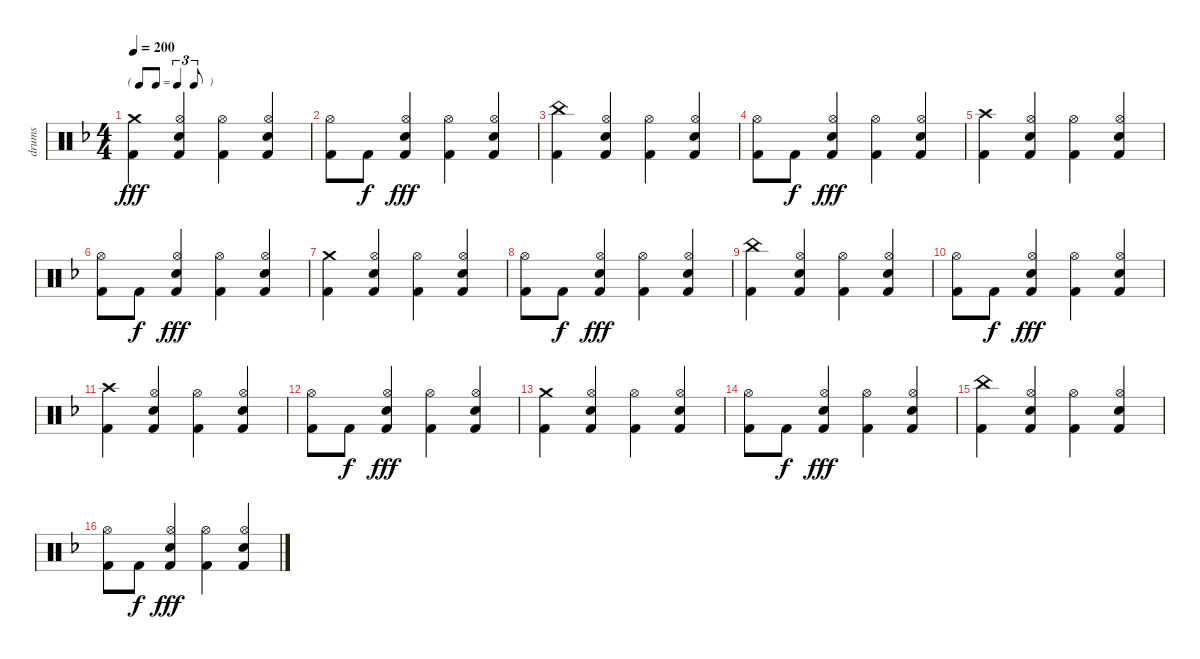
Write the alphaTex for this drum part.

\track ("drums" "drums") {instrument percussion}
\staff {score}
\articulation defaults
\ts (4 4)
\tf triplet8th
\tempo 200
\clef neutral
\ks dminor
("Crash medium (hit)" "Kick (hit) 2").4{dy fff} ("Hi-Hat (open)" "Electric Snare (hit)" "Kick (hit) 2").4 ("Hi-Hat (open)" "Kick (hit) 2").4 ("Hi-Hat (open)" "Electric Snare (hit)" "Kick (hit) 2").4 |
("Hi-Hat (open)" "Kick (hit) 2").8 "Kick (hit) 2".8{dy f} ("Hi-Hat (open)" "Electric Snare (hit)" "Kick (hit) 2").4{dy fff} ("Hi-Hat (open)" "Kick (hit) 2").4 ("Hi-Hat (open)" "Electric Snare (hit)" "Kick (hit) 2").4 |
("China (hit)" "Kick (hit) 2").4 ("Hi-Hat (open)" "Electric Snare (hit)" "Kick (hit) 2").4 ("Hi-Hat (open)" "Kick (hit) 2").4 ("Hi-Hat (open)" "Electric Snare (hit)" "Kick (hit) 2").4 |
("Hi-Hat (open)" "Kick (hit) 2").8 "Kick (hit) 2".8{dy f} ("Hi-Hat (open)" "Electric Snare (hit)" "Kick (hit) 2").4{dy fff} ("Hi-Hat (open)" "Kick (hit) 2").4 ("Hi-Hat (open)" "Electric Snare (hit)" "Kick (hit) 2").4 |
("Crash high (hit)" "Kick (hit) 2").4 ("Hi-Hat (open)" "Electric Snare (hit)" "Kick (hit) 2").4 ("Hi-Hat (open)" "Kick (hit) 2").4 ("Hi-Hat (open)" "Electric Snare (hit)" "Kick (hit) 2").4 |
("Hi-Hat (open)" "Kick (hit) 2").8 "Kick (hit) 2".8{dy f} ("Hi-Hat (open)" "Electric Snare (hit)" "Kick (hit) 2").4{dy fff} ("Hi-Hat (open)" "Kick (hit) 2").4 ("Hi-Hat (open)" "Electric Snare (hit)" "Kick (hit) 2").4 |
("Crash medium (hit)" "Kick (hit) 2").4 ("Hi-Hat (open)" "Electric Snare (hit)" "Kick (hit) 2").4 ("Hi-Hat (open)" "Kick (hit) 2").4 ("Hi-Hat (open)" "Electric Snare (hit)" "Kick (hit) 2").4 |
("Hi-Hat (open)" "Kick (hit) 2").8 "Kick (hit) 2".8{dy f} ("Hi-Hat (open)" "Electric Snare (hit)" "Kick (hit) 2").4{dy fff} ("Hi-Hat (open)" "Kick (hit) 2").4 ("Hi-Hat (open)" "Electric Snare (hit)" "Kick (hit) 2").4 |
("China (hit)" "Kick (hit) 2").4 ("Hi-Hat (open)" "Electric Snare (hit)" "Kick (hit) 2").4 ("Hi-Hat (open)" "Kick (hit) 2").4 ("Hi-Hat (open)" "Electric Snare (hit)" "Kick (hit) 2").4 |
("Hi-Hat (open)" "Kick (hit) 2").8 "Kick (hit) 2".8{dy f} ("Hi-Hat (open)" "Electric Snare (hit)" "Kick (hit) 2").4{dy fff} ("Hi-Hat (open)" "Kick (hit) 2").4 ("Hi-Hat (open)" "Electric Snare (hit)" "Kick (hit) 2").4 |
("Crash high (hit)" "Kick (hit) 2").4 ("Hi-Hat (open)" "Electric Snare (hit)" "Kick (hit) 2").4 ("Hi-Hat (open)" "Kick (hit) 2").4 ("Hi-Hat (open)" "Electric Snare (hit)" "Kick (hit) 2").4 |
("Hi-Hat (open)" "Kick (hit) 2").8 "Kick (hit) 2".8{dy f} ("Hi-Hat (open)" "Electric Snare (hit)" "Kick (hit) 2").4{dy fff} ("Hi-Hat (open)" "Kick (hit) 2").4 ("Hi-Hat (open)" "Electric Snare (hit)" "Kick (hit) 2").4 |
("Crash medium (hit)" "Kick (hit) 2").4 ("Hi-Hat (open)" "Electric Snare (hit)" "Kick (hit) 2").4 ("Hi-Hat (open)" "Kick (hit) 2").4 ("Hi-Hat (open)" "Electric Snare (hit)" "Kick (hit) 2").4 |
("Hi-Hat (open)" "Kick (hit) 2").8 "Kick (hit) 2".8{dy f} ("Hi-Hat (open)" "Electric Snare (hit)" "Kick (hit) 2").4{dy fff} ("Hi-Hat (open)" "Kick (hit) 2").4 ("Hi-Hat (open)" "Electric Snare (hit)" "Kick (hit) 2").4 |
("China (hit)" "Kick (hit) 2").4 ("Hi-Hat (open)" "Electric Snare (hit)" "Kick (hit) 2").4 ("Hi-Hat (open)" "Kick (hit) 2").4 ("Hi-Hat (open)" "Electric Snare (hit)" "Kick (hit) 2").4 |
("Hi-Hat (open)" "Kick (hit) 2").8 "Kick (hit) 2".8{dy f} ("Hi-Hat (open)" "Electric Snare (hit)" "Kick (hit) 2").4{dy fff} ("Hi-Hat (open)" "Kick (hit) 2").4 ("Hi-Hat (open)" "Electric Snare (hit)" "Kick (hit) 2").4
